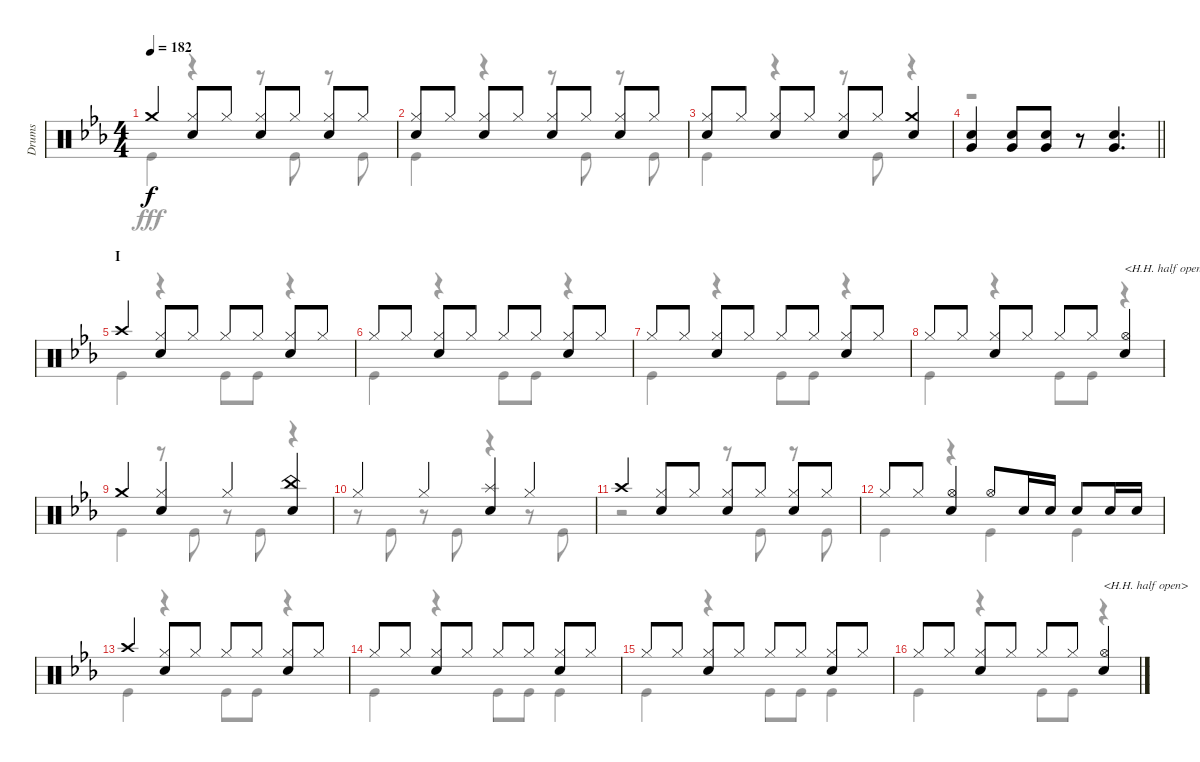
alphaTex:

\track ("Drums" "Drums") {instrument percussion}
\staff {score}
\articulation defaults
\voice
\ts (4 4)
\tempo 182
\clef neutral
\ks eb "Crash medium (hit)".4{dy f}
("Hi-Hat (closed)" "Snare (hit) 2").8 "Hi-Hat (closed)".8 ("Hi-Hat (closed)" "Snare (hit) 2").8 "Hi-Hat (closed)".8 ("Hi-Hat (closed)" "Snare (hit) 2").8 "Hi-Hat (closed)".8 |
("Hi-Hat (closed)" "Snare (hit) 2").8 "Hi-Hat (closed)".8 ("Hi-Hat (closed)" "Snare (hit) 2").8 "Hi-Hat (closed)".8 ("Hi-Hat (closed)" "Snare (hit) 2").8 "Hi-Hat (closed)".8 ("Hi-Hat (closed)" "Snare (hit) 2").8 "Hi-Hat (closed)".8 |
("Hi-Hat (closed)" "Snare (hit) 2").8 "Hi-Hat (closed)".8 ("Hi-Hat (closed)" "Snare (hit) 2").8 "Hi-Hat (closed)".8 ("Hi-Hat (closed)" "Snare (hit) 2").8 "Hi-Hat (closed)".8 ("Crash medium (hit)" "Snare (hit) 2").4 |
\barLineRight lightlight
("Snare (hit) 2" "Very Low Tom (hit)").4 ("Snare (hit) 2" "Very Low Tom (hit)").8 ("Snare (hit) 2" "Very Low Tom (hit)").8 r.8 ("Snare (hit) 2" "Very Low Tom (hit)").4{d} |
\section ("" "I")
"Crash high (hit)".4 ("Hi-Hat (closed)" "Snare (hit) 2").8 "Hi-Hat (closed)".8 "Hi-Hat (closed)".8 "Hi-Hat (closed)".8 ("Hi-Hat (closed)" "Snare (hit) 2").8 "Hi-Hat (closed)".8 |
"Hi-Hat (closed)".8 "Hi-Hat (closed)".8 ("Hi-Hat (closed)" "Snare (hit) 2").8 "Hi-Hat (closed)".8 "Hi-Hat (closed)".8 "Hi-Hat (closed)".8 ("Hi-Hat (closed)" "Snare (hit) 2").8 "Hi-Hat (closed)".8 |
"Hi-Hat (closed)".8 "Hi-Hat (closed)".8 ("Hi-Hat (closed)" "Snare (hit) 2").8 "Hi-Hat (closed)".8 "Hi-Hat (closed)".8 "Hi-Hat (closed)".8 ("Hi-Hat (closed)" "Snare (hit) 2").8 "Hi-Hat (closed)".8 |
"Hi-Hat (closed)".8 "Hi-Hat (closed)".8 ("Hi-Hat (closed)" "Snare (hit) 2").8 "Hi-Hat (closed)".8 "Hi-Hat (closed)".8 "Hi-Hat (closed)".8 ("Hi-Hat (open)" "Snare (hit) 2").4{txt "<H.H. half open>"} |
"Crash medium (hit)".4 ("Hi-Hat (closed)" "Snare (hit) 2").4 "Hi-Hat (closed)".4 ("China (hit)" "Snare (hit) 2").4 |
"Hi-Hat (closed)".4 "Hi-Hat (closed)".4 ("Splash (hit)" "Snare (hit) 2").4 "Hi-Hat (closed)".4 |
"Crash high (hit)".4 ("Hi-Hat (closed)" "Snare (hit) 2").8 "Hi-Hat (closed)".8 ("Hi-Hat (closed)" "Snare (hit) 2").8 "Hi-Hat (closed)".8 ("Hi-Hat (closed)" "Snare (hit) 2").8 "Hi-Hat (closed)".8 |
"Hi-Hat (closed)".8 "Hi-Hat (closed)".8 ("Hi-Hat (open)" "Snare (hit) 2").4 "Hi-Hat (open)".8 "Snare (hit) 2".16 "Snare (hit) 2".16 "Snare (hit) 2".8 "Snare (hit) 2".16 "Snare (hit) 2".16 |
"Crash high (hit)".4 ("Hi-Hat (closed)" "Snare (hit) 2").8 "Hi-Hat (closed)".8 "Hi-Hat (closed)".8 "Hi-Hat (closed)".8 ("Hi-Hat (closed)" "Snare (hit) 2").8 "Hi-Hat (closed)".8 |
"Hi-Hat (closed)".8 "Hi-Hat (closed)".8 ("Hi-Hat (closed)" "Snare (hit) 2").8 "Hi-Hat (closed)".8 "Hi-Hat (closed)".8 "Hi-Hat (closed)".8 ("Hi-Hat (closed)" "Snare (hit) 2").8 "Hi-Hat (closed)".8 |
"Hi-Hat (closed)".8 "Hi-Hat (closed)".8 ("Hi-Hat (closed)" "Snare (hit) 2").8 "Hi-Hat (closed)".8 "Hi-Hat (closed)".8 "Hi-Hat (closed)".8 ("Hi-Hat (closed)" "Snare (hit) 2").8 "Hi-Hat (closed)".8 |
"Hi-Hat (closed)".8 "Hi-Hat (closed)".8 ("Hi-Hat (closed)" "Snare (hit) 2").8 "Hi-Hat (closed)".8 "Hi-Hat (closed)".8 "Hi-Hat (closed)".8 ("Hi-Hat (open)" "Snare (hit) 2").4{txt "<H.H. half open>"}
\voice
\clef neutral
\ottava regular
\simile none
\ks eb "Kick (hit)".4{dy fff}
r.4 r.8 "Kick (hit)".8 r.8 "Kick (hit)".8 |
"Kick (hit)".4 r.4 r.8 "Kick (hit)".8 r.8 "Kick (hit)".8 |
"Kick (hit)".4 r.4 r.8 "Kick (hit)".8 r.4 |
\barLineRight lightlight
r.1 |
"Kick (hit)".4 r.4 "Kick (hit)".8 "Kick (hit)".8 r.4 |
"Kick (hit)".4 r.4 "Kick (hit)".8 "Kick (hit)".8 r.4 |
"Kick (hit)".4 r.4 "Kick (hit)".8 "Kick (hit)".8 r.4 |
"Kick (hit)".4 r.4 "Kick (hit)".8 "Kick (hit)".8 r.4 |
"Kick (hit)".4 r.8 "Kick (hit)".8 r.8 "Kick (hit)".8 r.4 |
r.8 "Kick (hit)".8 r.8 "Kick (hit)".8 r.4 r.8 "Kick (hit)".8 |
r.2 r.8 "Kick (hit)".8 r.8 "Kick (hit)".8 |
"Kick (hit)".4 r.4 "Kick (hit)".4 "Kick (hit)".4 |
"Kick (hit)".4 r.4 "Kick (hit)".8 "Kick (hit)".8 r.4 |
"Kick (hit)".4 r.4 "Kick (hit)".8 "Kick (hit)".8 "Kick (hit)".4 |
"Kick (hit)".4 r.4 "Kick (hit)".8 "Kick (hit)".8 "Kick (hit)".4 |
"Kick (hit)".4 r.4 "Kick (hit)".8 "Kick (hit)".8 r.4
